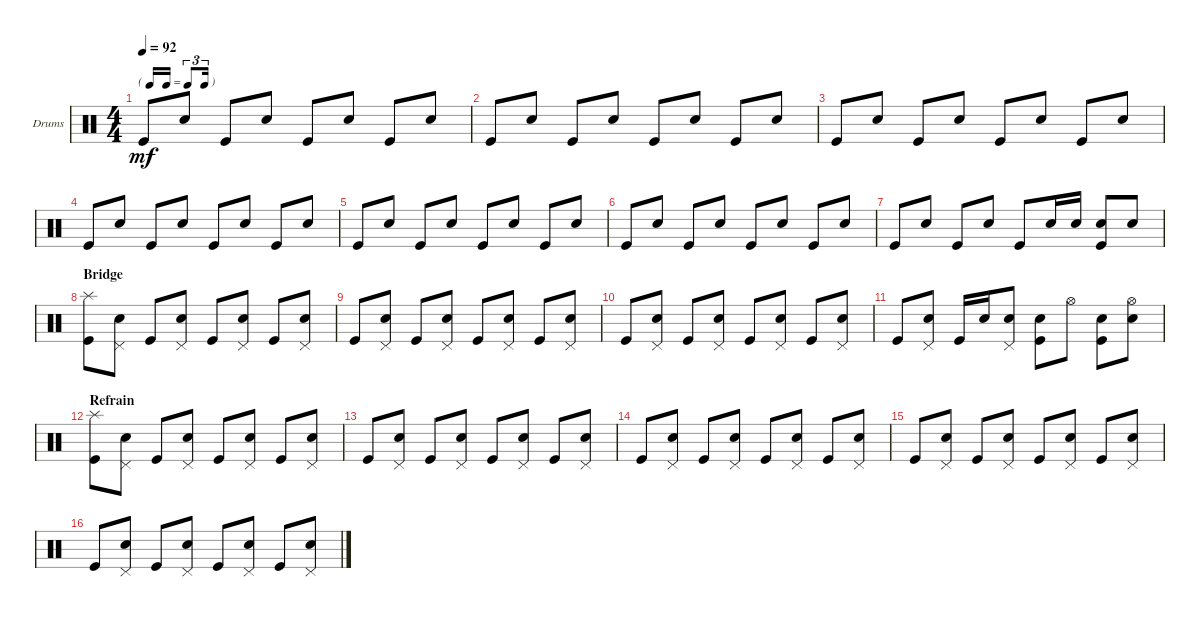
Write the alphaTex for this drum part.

\defaultSystemsLayout 4
\bracketExtendMode nobrackets
\firstSystemTrackNameOrientation horizontal
\otherSystemsTrackNameOrientation horizontal
\track ("Drumkit" "Drums") {instrument percussion}
\staff {score}
\articulation defaults
\ts (4 4)
\tf triplet16th
\tempo 92
\clef neutral
\ks c "Kick (hit)".8{dy mf} "Snare (hit) 2".8 "Kick (hit)".8 "Snare (hit) 2".8 "Kick (hit)".8 "Snare (hit) 2".8 "Kick (hit)".8 "Snare (hit) 2".8
|
"Kick (hit)".8 "Snare (hit) 2".8 "Kick (hit)".8 "Snare (hit) 2".8 "Kick (hit)".8 "Snare (hit) 2".8 "Kick (hit)".8 "Snare (hit) 2".8 |
"Kick (hit)".8 "Snare (hit) 2".8 "Kick (hit)".8 "Snare (hit) 2".8 "Kick (hit)".8 "Snare (hit) 2".8 "Kick (hit)".8 "Snare (hit) 2".8 |
"Kick (hit)".8 "Snare (hit) 2".8 "Kick (hit)".8 "Snare (hit) 2".8 "Kick (hit)".8 "Snare (hit) 2".8 "Kick (hit)".8 "Snare (hit) 2".8 |
"Kick (hit)".8 "Snare (hit) 2".8 "Kick (hit)".8 "Snare (hit) 2".8 "Kick (hit)".8 "Snare (hit) 2".8 "Kick (hit)".8 "Snare (hit) 2".8 |
"Kick (hit)".8 "Snare (hit) 2".8 "Kick (hit)".8 "Snare (hit) 2".8 "Kick (hit)".8 "Snare (hit) 2".8 "Kick (hit)".8 "Snare (hit) 2".8 |
"Kick (hit)".8 "Snare (hit) 2".8 "Kick (hit)".8 "Snare (hit) 2".8 "Kick (hit)".8 "Snare (hit) 2".16 "Snare (hit) 2".16 ("Kick (hit)" "Snare (hit) 2").8 "Snare (hit) 2".8 |
\section ("" "Bridge")
("Splash (hit)" "Kick (hit)").8 ("Snare (hit) 2" "Pedal Hi-Hat (hit)").8 "Kick (hit)".8 ("Snare (hit) 2" "Pedal Hi-Hat (hit)").8 "Kick (hit)".8 ("Snare (hit) 2" "Pedal Hi-Hat (hit)").8 "Kick (hit)".8 ("Snare (hit) 2" "Pedal Hi-Hat (hit)").8 |
"Kick (hit)".8 ("Snare (hit) 2" "Pedal Hi-Hat (hit)").8 "Kick (hit)".8 ("Snare (hit) 2" "Pedal Hi-Hat (hit)").8 "Kick (hit)".8 ("Snare (hit) 2" "Pedal Hi-Hat (hit)").8 "Kick (hit)".8 ("Snare (hit) 2" "Pedal Hi-Hat (hit)").8 |
"Kick (hit)".8 ("Snare (hit) 2" "Pedal Hi-Hat (hit)").8 "Kick (hit)".8 ("Snare (hit) 2" "Pedal Hi-Hat (hit)").8 "Kick (hit)".8 ("Snare (hit) 2" "Pedal Hi-Hat (hit)").8 "Kick (hit)".8 ("Snare (hit) 2" "Pedal Hi-Hat (hit)").8 |
"Kick (hit)".8 ("Snare (hit) 2" "Pedal Hi-Hat (hit)").8 "Kick (hit)".16 "Snare (hit) 2".16 ("Snare (hit) 2" "Pedal Hi-Hat (hit)").8 ("Kick (hit)" "Snare (hit) 2").8 "Hi-Hat (open)".8 ("Kick (hit)" "Snare (hit) 2").8 ("Snare (hit) 2" "Hi-Hat (open)").8 |
\section ("" "Refrain")
("Splash (hit)" "Kick (hit)").8 ("Snare (hit) 2" "Pedal Hi-Hat (hit)").8 "Kick (hit)".8 ("Snare (hit) 2" "Pedal Hi-Hat (hit)").8 "Kick (hit)".8 ("Snare (hit) 2" "Pedal Hi-Hat (hit)").8 "Kick (hit)".8 ("Snare (hit) 2" "Pedal Hi-Hat (hit)").8 |
"Kick (hit)".8 ("Snare (hit) 2" "Pedal Hi-Hat (hit)").8 "Kick (hit)".8 ("Snare (hit) 2" "Pedal Hi-Hat (hit)").8 "Kick (hit)".8 ("Snare (hit) 2" "Pedal Hi-Hat (hit)").8 "Kick (hit)".8 ("Snare (hit) 2" "Pedal Hi-Hat (hit)").8 |
"Kick (hit)".8 ("Snare (hit) 2" "Pedal Hi-Hat (hit)").8 "Kick (hit)".8 ("Snare (hit) 2" "Pedal Hi-Hat (hit)").8 "Kick (hit)".8 ("Snare (hit) 2" "Pedal Hi-Hat (hit)").8 "Kick (hit)".8 ("Snare (hit) 2" "Pedal Hi-Hat (hit)").8 |
"Kick (hit)".8 ("Snare (hit) 2" "Pedal Hi-Hat (hit)").8 "Kick (hit)".8 ("Snare (hit) 2" "Pedal Hi-Hat (hit)").8 "Kick (hit)".8 ("Snare (hit) 2" "Pedal Hi-Hat (hit)").8 "Kick (hit)".8 ("Snare (hit) 2" "Pedal Hi-Hat (hit)").8 |
"Kick (hit)".8 ("Snare (hit) 2" "Pedal Hi-Hat (hit)").8 "Kick (hit)".8 ("Snare (hit) 2" "Pedal Hi-Hat (hit)").8 "Kick (hit)".8 ("Snare (hit) 2" "Pedal Hi-Hat (hit)").8 "Kick (hit)".8 ("Snare (hit) 2" "Pedal Hi-Hat (hit)").8
